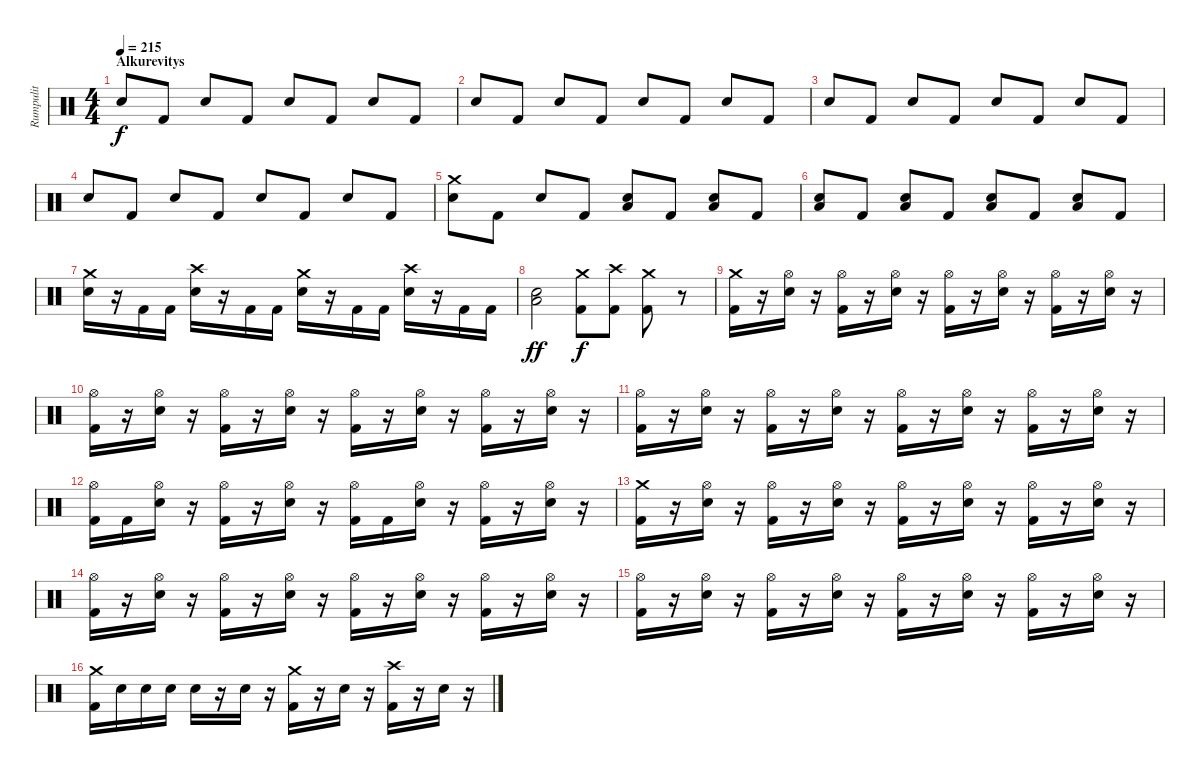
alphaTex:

\track ("Rumpulit" "Rumpulit") {instrument percussion}
\staff {score}
\articulation defaults
\ts (4 4)
\section ("" "Alkurevitys")
\tempo 215
\clef neutral
\ks c "Electric Snare (hit)".8{dy f} "Kick (hit) 2".8 "Electric Snare (hit)".8 "Kick (hit) 2".8 "Electric Snare (hit)".8 "Kick (hit) 2".8 "Electric Snare (hit)".8 "Kick (hit) 2".8
|
"Electric Snare (hit)".8 "Kick (hit) 2".8 "Electric Snare (hit)".8 "Kick (hit) 2".8 "Electric Snare (hit)".8 "Kick (hit) 2".8 "Electric Snare (hit)".8 "Kick (hit) 2".8 |
"Electric Snare (hit)".8 "Kick (hit) 2".8 "Electric Snare (hit)".8 "Kick (hit) 2".8 "Electric Snare (hit)".8 "Kick (hit) 2".8 "Electric Snare (hit)".8 "Kick (hit) 2".8 |
"Electric Snare (hit)".8 "Kick (hit) 2".8 "Electric Snare (hit)".8 "Kick (hit) 2".8 "Electric Snare (hit)".8 "Kick (hit) 2".8 "Electric Snare (hit)".8 "Kick (hit) 2".8 |
("Electric Snare (hit)" "Crash medium (hit)").8 "Kick (hit) 2".8 "Electric Snare (hit)".8 "Kick (hit) 2".8 ("Electric Snare (hit)" "Low Floor Tom (hit)").8 "Kick (hit) 2".8 ("Electric Snare (hit)" "Low Floor Tom (hit)").8 "Kick (hit) 2".8 |
("Electric Snare (hit)" "Low Floor Tom (hit)").8 "Kick (hit) 2".8 ("Electric Snare (hit)" "Low Floor Tom (hit)").8 "Kick (hit) 2".8 ("Electric Snare (hit)" "Low Floor Tom (hit)").8 "Kick (hit) 2".8 ("Electric Snare (hit)" "Low Floor Tom (hit)").8 "Kick (hit) 2".8 |
("Electric Snare (hit)" "Crash medium (hit)").16 r.16 "Kick (hit) 2".16 "Kick (hit) 2".16 ("Electric Snare (hit)" "Crash high (hit)").16 r.16 "Kick (hit) 2".16 "Kick (hit) 2".16 ("Electric Snare (hit)" "Crash medium (hit)").16 r.16 "Kick (hit) 2".16 "Kick (hit) 2".16 ("Electric Snare (hit)" "Crash high (hit)").16 r.16 "Kick (hit) 2".16 "Kick (hit) 2".16 |
("Electric Snare (hit)" "Low Floor Tom (hit)").2{dy ff} ("Crash medium (hit)" "Kick (hit) 2").8{dy f} ("Crash high (hit)" "Kick (hit) 2").8 ("Crash medium (hit)" "Kick (hit) 2").8 r.8 |
("Crash medium (hit)" "Kick (hit) 2").16 r.16 ("Hi-Hat (open)" "Electric Snare (hit)").16 r.16 ("Hi-Hat (open)" "Kick (hit) 2").16 r.16 ("Hi-Hat (open)" "Electric Snare (hit)").16 r.16 ("Hi-Hat (open)" "Kick (hit) 2").16 r.16 ("Hi-Hat (open)" "Electric Snare (hit)").16 r.16 ("Hi-Hat (open)" "Kick (hit) 2").16 r.16 ("Hi-Hat (open)" "Electric Snare (hit)").16 r.16 |
("Hi-Hat (open)" "Kick (hit) 2").16 r.16 ("Hi-Hat (open)" "Electric Snare (hit)").16 r.16 ("Hi-Hat (open)" "Kick (hit) 2").16 r.16 ("Hi-Hat (open)" "Electric Snare (hit)").16 r.16 ("Hi-Hat (open)" "Kick (hit) 2").16 r.16 ("Hi-Hat (open)" "Electric Snare (hit)").16 r.16 ("Hi-Hat (open)" "Kick (hit) 2").16 r.16 ("Hi-Hat (open)" "Electric Snare (hit)").16 r.16 |
("Hi-Hat (open)" "Kick (hit) 2").16 r.16 ("Hi-Hat (open)" "Electric Snare (hit)").16 r.16 ("Hi-Hat (open)" "Kick (hit) 2").16 r.16 ("Hi-Hat (open)" "Electric Snare (hit)").16 r.16 ("Hi-Hat (open)" "Kick (hit) 2").16 r.16 ("Hi-Hat (open)" "Electric Snare (hit)").16 r.16 ("Hi-Hat (open)" "Kick (hit) 2").16 r.16 ("Hi-Hat (open)" "Electric Snare (hit)").16 r.16 |
("Hi-Hat (open)" "Kick (hit) 2").16 "Kick (hit) 2".16 ("Hi-Hat (open)" "Electric Snare (hit)").16 r.16 ("Hi-Hat (open)" "Kick (hit) 2").16 r.16 ("Hi-Hat (open)" "Electric Snare (hit)").16 r.16 ("Hi-Hat (open)" "Kick (hit) 2").16 "Kick (hit) 2".16 ("Hi-Hat (open)" "Electric Snare (hit)").16 r.16 ("Hi-Hat (open)" "Kick (hit) 2").16 r.16 ("Hi-Hat (open)" "Electric Snare (hit)").16 r.16 |
("Crash medium (hit)" "Kick (hit) 2").16 r.16 ("Hi-Hat (open)" "Electric Snare (hit)").16 r.16 ("Hi-Hat (open)" "Kick (hit) 2").16 r.16 ("Hi-Hat (open)" "Electric Snare (hit)").16 r.16 ("Hi-Hat (open)" "Kick (hit) 2").16 r.16 ("Hi-Hat (open)" "Electric Snare (hit)").16 r.16 ("Hi-Hat (open)" "Kick (hit) 2").16 r.16 ("Hi-Hat (open)" "Electric Snare (hit)").16 r.16 |
("Hi-Hat (open)" "Kick (hit) 2").16 r.16 ("Hi-Hat (open)" "Electric Snare (hit)").16 r.16 ("Hi-Hat (open)" "Kick (hit) 2").16 r.16 ("Hi-Hat (open)" "Electric Snare (hit)").16 r.16 ("Hi-Hat (open)" "Kick (hit) 2").16 r.16 ("Hi-Hat (open)" "Electric Snare (hit)").16 r.16 ("Hi-Hat (open)" "Kick (hit) 2").16 r.16 ("Hi-Hat (open)" "Electric Snare (hit)").16 r.16 |
("Hi-Hat (open)" "Kick (hit) 2").16 r.16 ("Hi-Hat (open)" "Electric Snare (hit)").16 r.16 ("Hi-Hat (open)" "Kick (hit) 2").16 r.16 ("Hi-Hat (open)" "Electric Snare (hit)").16 r.16 ("Hi-Hat (open)" "Kick (hit) 2").16 r.16 ("Hi-Hat (open)" "Electric Snare (hit)").16 r.16 ("Hi-Hat (open)" "Kick (hit) 2").16 r.16 ("Hi-Hat (open)" "Electric Snare (hit)").16 r.16 |
("Crash medium (hit)" "Kick (hit) 2").16 "Electric Snare (hit)".16 "Electric Snare (hit)".16 "Electric Snare (hit)".16 "Electric Snare (hit)".16 r.16 "Electric Snare (hit)".16 r.16 ("Kick (hit) 2" "Crash medium (hit)").16 r.16 "Electric Snare (hit)".16 r.16 ("Crash high (hit)" "Kick (hit) 2").16 r.16 "Electric Snare (hit)".16 r.16
